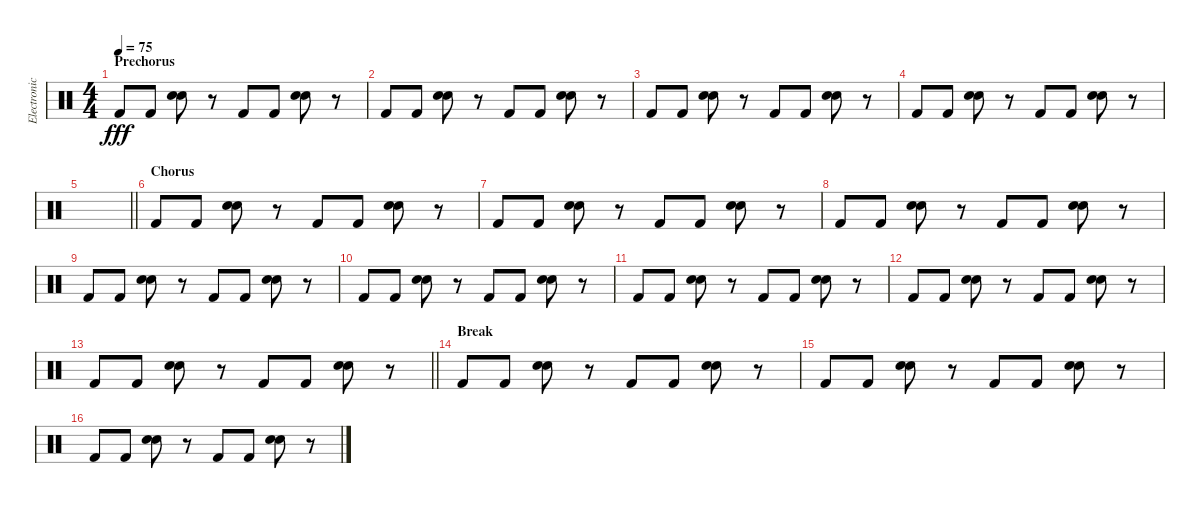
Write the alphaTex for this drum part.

\track ("Electronic Kit" "Electronic") {instrument percussion}
\staff {score}
\articulation defaults
\ts (4 4)
\section ("" "Prechorus")
\tempo 75
\clef neutral
\ks c "Kick (hit) 2".8{dy fff} "Kick (hit) 2".8
("Hand Clap (hit)" "Electric Snare (hit)").8 r.8 "Kick (hit) 2".8 "Kick (hit) 2".8 ("Hand Clap (hit)" "Electric Snare (hit)").8 r.8 |
"Kick (hit) 2".8 "Kick (hit) 2".8 ("Hand Clap (hit)" "Electric Snare (hit)").8 r.8 "Kick (hit) 2".8 "Kick (hit) 2".8 ("Hand Clap (hit)" "Electric Snare (hit)").8 r.8 |
"Kick (hit) 2".8 "Kick (hit) 2".8 ("Hand Clap (hit)" "Electric Snare (hit)").8 r.8 "Kick (hit) 2".8 "Kick (hit) 2".8 ("Hand Clap (hit)" "Electric Snare (hit)").8 r.8 |
"Kick (hit) 2".8 "Kick (hit) 2".8 ("Hand Clap (hit)" "Electric Snare (hit)").8 r.8 "Kick (hit) 2".8 "Kick (hit) 2".8 ("Hand Clap (hit)" "Electric Snare (hit)").8 r.8 |
\barLineRight lightlight
|
\section ("" "Chorus")
"Kick (hit) 2".8 "Kick (hit) 2".8 ("Hand Clap (hit)" "Electric Snare (hit)").8 r.8 "Kick (hit) 2".8 "Kick (hit) 2".8 ("Hand Clap (hit)" "Electric Snare (hit)").8 r.8 |
"Kick (hit) 2".8 "Kick (hit) 2".8 ("Hand Clap (hit)" "Electric Snare (hit)").8 r.8 "Kick (hit) 2".8 "Kick (hit) 2".8 ("Hand Clap (hit)" "Electric Snare (hit)").8 r.8 |
"Kick (hit) 2".8 "Kick (hit) 2".8 ("Hand Clap (hit)" "Electric Snare (hit)").8 r.8 "Kick (hit) 2".8 "Kick (hit) 2".8 ("Hand Clap (hit)" "Electric Snare (hit)").8 r.8 |
"Kick (hit) 2".8 "Kick (hit) 2".8 ("Hand Clap (hit)" "Electric Snare (hit)").8 r.8 "Kick (hit) 2".8 "Kick (hit) 2".8 ("Hand Clap (hit)" "Electric Snare (hit)").8 r.8 |
"Kick (hit) 2".8 "Kick (hit) 2".8 ("Hand Clap (hit)" "Electric Snare (hit)").8 r.8 "Kick (hit) 2".8 "Kick (hit) 2".8 ("Hand Clap (hit)" "Electric Snare (hit)").8 r.8 |
"Kick (hit) 2".8 "Kick (hit) 2".8 ("Hand Clap (hit)" "Electric Snare (hit)").8 r.8 "Kick (hit) 2".8 "Kick (hit) 2".8 ("Hand Clap (hit)" "Electric Snare (hit)").8 r.8 |
"Kick (hit) 2".8 "Kick (hit) 2".8 ("Hand Clap (hit)" "Electric Snare (hit)").8 r.8 "Kick (hit) 2".8 "Kick (hit) 2".8 ("Hand Clap (hit)" "Electric Snare (hit)").8 r.8 |
\barLineRight lightlight "Kick (hit) 2".8 "Kick (hit) 2".8
("Hand Clap (hit)" "Electric Snare (hit)").8 r.8 "Kick (hit) 2".8 "Kick (hit) 2".8 ("Hand Clap (hit)" "Electric Snare (hit)").8 r.8 |
\section ("" "Break")
"Kick (hit) 2".8 "Kick (hit) 2".8 ("Hand Clap (hit)" "Electric Snare (hit)").8 r.8 "Kick (hit) 2".8 "Kick (hit) 2".8 ("Hand Clap (hit)" "Electric Snare (hit)").8 r.8 |
"Kick (hit) 2".8 "Kick (hit) 2".8 ("Hand Clap (hit)" "Electric Snare (hit)").8 r.8 "Kick (hit) 2".8 "Kick (hit) 2".8 ("Hand Clap (hit)" "Electric Snare (hit)").8 r.8 |
"Kick (hit) 2".8 "Kick (hit) 2".8 ("Hand Clap (hit)" "Electric Snare (hit)").8 r.8 "Kick (hit) 2".8 "Kick (hit) 2".8 ("Hand Clap (hit)" "Electric Snare (hit)").8 r.8
